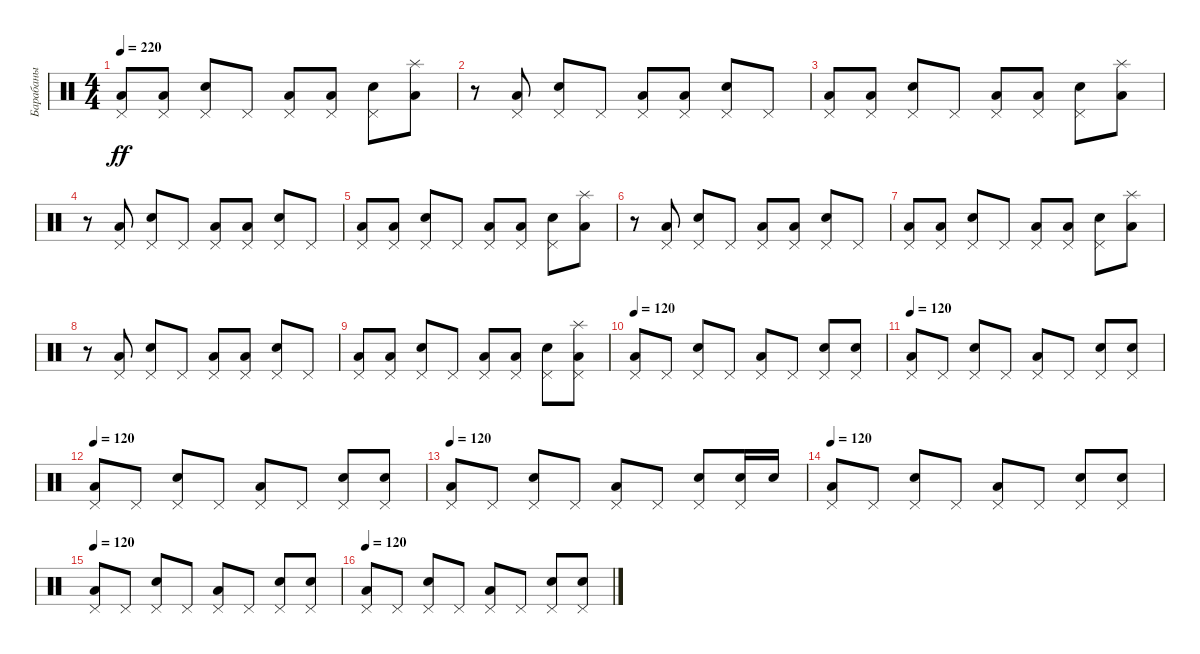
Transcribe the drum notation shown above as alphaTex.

\track ("Барабаны" "Барабаны") {instrument percussion}
\staff {score}
\articulation defaults
\ts (4 4)
\tempo 220
\clef neutral
\ks c
("Low Floor Tom (hit)" "Pedal Hi-Hat (hit)").8{dy ff} ("Low Floor Tom (hit)" "Pedal Hi-Hat (hit)").8 ("Electric Snare (hit)" "Pedal Hi-Hat (hit)").8 "Pedal Hi-Hat (hit)".8 ("Low Floor Tom (hit)" "Pedal Hi-Hat (hit)").8 ("Low Floor Tom (hit)" "Pedal Hi-Hat (hit)").8 ("Electric Snare (hit)" "Pedal Hi-Hat (hit)").8 ("Low Floor Tom (hit)" "Splash (hit)").8 |
r.8 ("Low Floor Tom (hit)" "Pedal Hi-Hat (hit)").8 ("Electric Snare (hit)" "Pedal Hi-Hat (hit)").8 "Pedal Hi-Hat (hit)".8 ("Low Floor Tom (hit)" "Pedal Hi-Hat (hit)").8 ("Low Floor Tom (hit)" "Pedal Hi-Hat (hit)").8 ("Electric Snare (hit)" "Pedal Hi-Hat (hit)").8 "Pedal Hi-Hat (hit)".8 |
("Low Floor Tom (hit)" "Pedal Hi-Hat (hit)").8 ("Low Floor Tom (hit)" "Pedal Hi-Hat (hit)").8 ("Electric Snare (hit)" "Pedal Hi-Hat (hit)").8 "Pedal Hi-Hat (hit)".8 ("Low Floor Tom (hit)" "Pedal Hi-Hat (hit)").8 ("Low Floor Tom (hit)" "Pedal Hi-Hat (hit)").8 ("Electric Snare (hit)" "Pedal Hi-Hat (hit)").8 ("Low Floor Tom (hit)" "Splash (hit)").8 |
r.8 ("Low Floor Tom (hit)" "Pedal Hi-Hat (hit)").8 ("Electric Snare (hit)" "Pedal Hi-Hat (hit)").8 "Pedal Hi-Hat (hit)".8 ("Low Floor Tom (hit)" "Pedal Hi-Hat (hit)").8 ("Low Floor Tom (hit)" "Pedal Hi-Hat (hit)").8 ("Electric Snare (hit)" "Pedal Hi-Hat (hit)").8 "Pedal Hi-Hat (hit)".8 |
("Low Floor Tom (hit)" "Pedal Hi-Hat (hit)").8 ("Low Floor Tom (hit)" "Pedal Hi-Hat (hit)").8 ("Electric Snare (hit)" "Pedal Hi-Hat (hit)").8 "Pedal Hi-Hat (hit)".8 ("Low Floor Tom (hit)" "Pedal Hi-Hat (hit)").8 ("Low Floor Tom (hit)" "Pedal Hi-Hat (hit)").8 ("Electric Snare (hit)" "Pedal Hi-Hat (hit)").8 ("Low Floor Tom (hit)" "Splash (hit)").8 |
r.8 ("Low Floor Tom (hit)" "Pedal Hi-Hat (hit)").8 ("Electric Snare (hit)" "Pedal Hi-Hat (hit)").8 "Pedal Hi-Hat (hit)".8 ("Low Floor Tom (hit)" "Pedal Hi-Hat (hit)").8 ("Low Floor Tom (hit)" "Pedal Hi-Hat (hit)").8 ("Electric Snare (hit)" "Pedal Hi-Hat (hit)").8 "Pedal Hi-Hat (hit)".8 |
("Low Floor Tom (hit)" "Pedal Hi-Hat (hit)").8 ("Low Floor Tom (hit)" "Pedal Hi-Hat (hit)").8 ("Electric Snare (hit)" "Pedal Hi-Hat (hit)").8 "Pedal Hi-Hat (hit)".8 ("Low Floor Tom (hit)" "Pedal Hi-Hat (hit)").8 ("Low Floor Tom (hit)" "Pedal Hi-Hat (hit)").8 ("Electric Snare (hit)" "Pedal Hi-Hat (hit)").8 ("Low Floor Tom (hit)" "Splash (hit)").8 |
r.8 ("Low Floor Tom (hit)" "Pedal Hi-Hat (hit)").8 ("Electric Snare (hit)" "Pedal Hi-Hat (hit)").8 "Pedal Hi-Hat (hit)".8 ("Low Floor Tom (hit)" "Pedal Hi-Hat (hit)").8 ("Low Floor Tom (hit)" "Pedal Hi-Hat (hit)").8 ("Electric Snare (hit)" "Pedal Hi-Hat (hit)").8 "Pedal Hi-Hat (hit)".8 |
("Low Floor Tom (hit)" "Pedal Hi-Hat (hit)").8 ("Low Floor Tom (hit)" "Pedal Hi-Hat (hit)").8 ("Electric Snare (hit)" "Pedal Hi-Hat (hit)").8 "Pedal Hi-Hat (hit)".8 ("Low Floor Tom (hit)" "Pedal Hi-Hat (hit)").8 ("Low Floor Tom (hit)" "Pedal Hi-Hat (hit)").8 ("Electric Snare (hit)" "Pedal Hi-Hat (hit)").8 ("Low Floor Tom (hit)" "Pedal Hi-Hat (hit)" "Splash (hit)").8 |
\tempo 120
("Low Floor Tom (hit)" "Pedal Hi-Hat (hit)").8 "Pedal Hi-Hat (hit)".8 ("Electric Snare (hit)" "Pedal Hi-Hat (hit)").8 "Pedal Hi-Hat (hit)".8 ("Low Floor Tom (hit)" "Pedal Hi-Hat (hit)").8 "Pedal Hi-Hat (hit)".8 ("Electric Snare (hit)" "Pedal Hi-Hat (hit)").8 ("Electric Snare (hit)" "Pedal Hi-Hat (hit)").8 |
\tempo 120
("Low Floor Tom (hit)" "Pedal Hi-Hat (hit)").8 "Pedal Hi-Hat (hit)".8 ("Electric Snare (hit)" "Pedal Hi-Hat (hit)").8 "Pedal Hi-Hat (hit)".8 ("Low Floor Tom (hit)" "Pedal Hi-Hat (hit)").8 "Pedal Hi-Hat (hit)".8 ("Electric Snare (hit)" "Pedal Hi-Hat (hit)").8 ("Electric Snare (hit)" "Pedal Hi-Hat (hit)").8 |
\tempo 120
("Low Floor Tom (hit)" "Pedal Hi-Hat (hit)").8 "Pedal Hi-Hat (hit)".8 ("Electric Snare (hit)" "Pedal Hi-Hat (hit)").8 "Pedal Hi-Hat (hit)".8 ("Low Floor Tom (hit)" "Pedal Hi-Hat (hit)").8 "Pedal Hi-Hat (hit)".8 ("Electric Snare (hit)" "Pedal Hi-Hat (hit)").8 ("Electric Snare (hit)" "Pedal Hi-Hat (hit)").8 |
\tempo 120
("Low Floor Tom (hit)" "Pedal Hi-Hat (hit)").8 "Pedal Hi-Hat (hit)".8 ("Electric Snare (hit)" "Pedal Hi-Hat (hit)").8 "Pedal Hi-Hat (hit)".8 ("Low Floor Tom (hit)" "Pedal Hi-Hat (hit)").8 "Pedal Hi-Hat (hit)".8 ("Electric Snare (hit)" "Pedal Hi-Hat (hit)").8 ("Electric Snare (hit)" "Pedal Hi-Hat (hit)").16 "Electric Snare (hit)".16 |
\tempo 120
("Low Floor Tom (hit)" "Pedal Hi-Hat (hit)").8 "Pedal Hi-Hat (hit)".8 ("Electric Snare (hit)" "Pedal Hi-Hat (hit)").8 "Pedal Hi-Hat (hit)".8 ("Low Floor Tom (hit)" "Pedal Hi-Hat (hit)").8 "Pedal Hi-Hat (hit)".8 ("Electric Snare (hit)" "Pedal Hi-Hat (hit)").8 ("Electric Snare (hit)" "Pedal Hi-Hat (hit)").8 |
\tempo 120
("Low Floor Tom (hit)" "Pedal Hi-Hat (hit)").8 "Pedal Hi-Hat (hit)".8 ("Electric Snare (hit)" "Pedal Hi-Hat (hit)").8 "Pedal Hi-Hat (hit)".8 ("Low Floor Tom (hit)" "Pedal Hi-Hat (hit)").8 "Pedal Hi-Hat (hit)".8 ("Electric Snare (hit)" "Pedal Hi-Hat (hit)").8 ("Electric Snare (hit)" "Pedal Hi-Hat (hit)").8 |
\tempo 120
("Low Floor Tom (hit)" "Pedal Hi-Hat (hit)").8 "Pedal Hi-Hat (hit)".8 ("Electric Snare (hit)" "Pedal Hi-Hat (hit)").8 "Pedal Hi-Hat (hit)".8 ("Low Floor Tom (hit)" "Pedal Hi-Hat (hit)").8 "Pedal Hi-Hat (hit)".8 ("Electric Snare (hit)" "Pedal Hi-Hat (hit)").8 ("Electric Snare (hit)" "Pedal Hi-Hat (hit)").8
